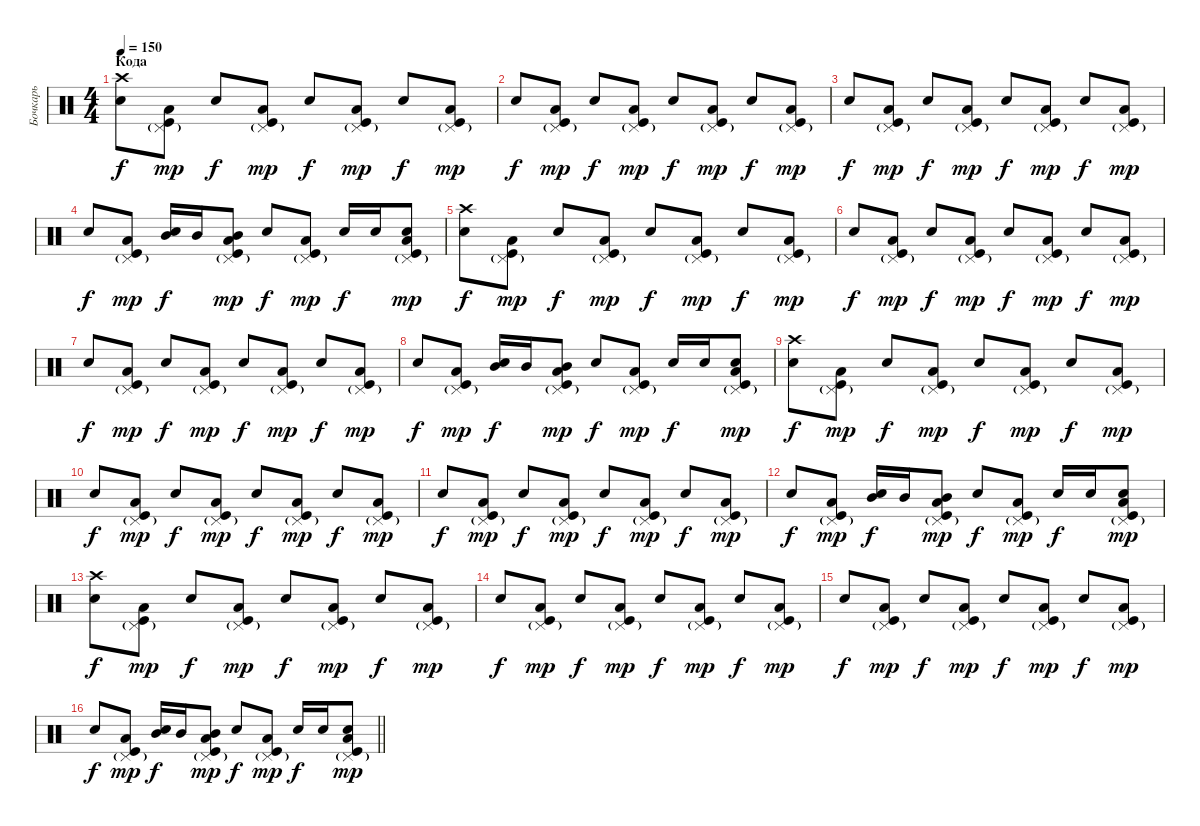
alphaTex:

\track ("Бочкарь" "Бочкарь") {instrument percussion}
\staff {score}
\articulation defaults
\ts (4 4)
\section ("" "Кода")
\tempo 150
\clef neutral
\ks c
("Crash high (hit)" "Electric Snare (hit)").8{dy f} ("Pedal Hi-Hat (hit)"{g} "Low Tom (hit)" "Kick (hit)").8{dy mp} "Electric Snare (hit)".8{dy f} ("Pedal Hi-Hat (hit)"{g} "Low Tom (hit)" "Kick (hit)").8{dy mp} "Electric Snare (hit)".8{dy f} ("Pedal Hi-Hat (hit)"{g} "Low Tom (hit)" "Kick (hit)").8{dy mp} "Electric Snare (hit)".8{dy f} ("Pedal Hi-Hat (hit)"{g} "Low Tom (hit)" "Kick (hit)").8{dy mp} |
"Electric Snare (hit)".8{dy f} ("Pedal Hi-Hat (hit)"{g} "Low Tom (hit)" "Kick (hit)").8{dy mp} "Electric Snare (hit)".8{dy f} ("Pedal Hi-Hat (hit)"{g} "Low Tom (hit)" "Kick (hit)").8{dy mp} "Electric Snare (hit)".8{dy f} ("Pedal Hi-Hat (hit)"{g} "Low Tom (hit)" "Kick (hit)").8{dy mp} "Electric Snare (hit)".8{dy f} ("Pedal Hi-Hat (hit)"{g} "Low Tom (hit)" "Kick (hit)").8{dy mp} |
"Electric Snare (hit)".8{dy f} ("Pedal Hi-Hat (hit)"{g} "Low Tom (hit)" "Kick (hit)").8{dy mp} "Electric Snare (hit)".8{dy f} ("Pedal Hi-Hat (hit)"{g} "Low Tom (hit)" "Kick (hit)").8{dy mp} "Electric Snare (hit)".8{dy f} ("Pedal Hi-Hat (hit)"{g} "Low Tom (hit)" "Kick (hit)").8{dy mp} "Electric Snare (hit)".8{dy f} ("Pedal Hi-Hat (hit)"{g} "Low Tom (hit)" "Kick (hit)").8{dy mp} |
"Electric Snare (hit)".8{dy f} ("Pedal Hi-Hat (hit)"{g} "Low Tom (hit)" "Kick (hit)").8{dy mp} ("Electric Snare (hit)" "Mid Tom (hit)").16{dy f} "Mid Tom (hit)".16 ("Pedal Hi-Hat (hit)"{g} "Mid Tom (hit)" "Low Tom (hit)" "Kick (hit)").8{dy mp} "Electric Snare (hit)".8{dy f} ("Pedal Hi-Hat (hit)"{g} "Low Tom (hit)" "Kick (hit)").8{dy mp} "Electric Snare (hit)".16{dy f} "Electric Snare (hit)".16 ("Pedal Hi-Hat (hit)"{g} "Electric Snare (hit)" "Low Tom (hit)" "Kick (hit)").8{dy mp} |
("Crash high (hit)" "Electric Snare (hit)").8{dy f} ("Pedal Hi-Hat (hit)"{g} "Low Tom (hit)" "Kick (hit)").8{dy mp} "Electric Snare (hit)".8{dy f} ("Pedal Hi-Hat (hit)"{g} "Low Tom (hit)" "Kick (hit)").8{dy mp} "Electric Snare (hit)".8{dy f} ("Pedal Hi-Hat (hit)"{g} "Low Tom (hit)" "Kick (hit)").8{dy mp} "Electric Snare (hit)".8{dy f} ("Pedal Hi-Hat (hit)"{g} "Low Tom (hit)" "Kick (hit)").8{dy mp} |
"Electric Snare (hit)".8{dy f} ("Pedal Hi-Hat (hit)"{g} "Low Tom (hit)" "Kick (hit)").8{dy mp} "Electric Snare (hit)".8{dy f} ("Pedal Hi-Hat (hit)"{g} "Low Tom (hit)" "Kick (hit)").8{dy mp} "Electric Snare (hit)".8{dy f} ("Pedal Hi-Hat (hit)"{g} "Low Tom (hit)" "Kick (hit)").8{dy mp} "Electric Snare (hit)".8{dy f} ("Pedal Hi-Hat (hit)"{g} "Low Tom (hit)" "Kick (hit)").8{dy mp} |
"Electric Snare (hit)".8{dy f} ("Pedal Hi-Hat (hit)"{g} "Low Tom (hit)" "Kick (hit)").8{dy mp} "Electric Snare (hit)".8{dy f} ("Pedal Hi-Hat (hit)"{g} "Low Tom (hit)" "Kick (hit)").8{dy mp} "Electric Snare (hit)".8{dy f} ("Pedal Hi-Hat (hit)"{g} "Low Tom (hit)" "Kick (hit)").8{dy mp} "Electric Snare (hit)".8{dy f} ("Pedal Hi-Hat (hit)"{g} "Low Tom (hit)" "Kick (hit)").8{dy mp} |
"Electric Snare (hit)".8{dy f} ("Pedal Hi-Hat (hit)"{g} "Low Tom (hit)" "Kick (hit)").8{dy mp} ("Electric Snare (hit)" "Mid Tom (hit)").16{dy f} "Mid Tom (hit)".16 ("Pedal Hi-Hat (hit)"{g} "Mid Tom (hit)" "Low Tom (hit)" "Kick (hit)").8{dy mp} "Electric Snare (hit)".8{dy f} ("Pedal Hi-Hat (hit)"{g} "Low Tom (hit)" "Kick (hit)").8{dy mp} "Electric Snare (hit)".16{dy f} "Electric Snare (hit)".16 ("Pedal Hi-Hat (hit)"{g} "Electric Snare (hit)" "Low Tom (hit)" "Kick (hit)").8{dy mp} |
("Crash high (hit)" "Electric Snare (hit)").8{dy f} ("Pedal Hi-Hat (hit)"{g} "Low Tom (hit)" "Kick (hit)").8{dy mp} "Electric Snare (hit)".8{dy f} ("Pedal Hi-Hat (hit)"{g} "Low Tom (hit)" "Kick (hit)").8{dy mp} "Electric Snare (hit)".8{dy f} ("Pedal Hi-Hat (hit)"{g} "Low Tom (hit)" "Kick (hit)").8{dy mp} "Electric Snare (hit)".8{dy f} ("Pedal Hi-Hat (hit)"{g} "Low Tom (hit)" "Kick (hit)").8{dy mp} |
"Electric Snare (hit)".8{dy f} ("Pedal Hi-Hat (hit)"{g} "Low Tom (hit)" "Kick (hit)").8{dy mp} "Electric Snare (hit)".8{dy f} ("Pedal Hi-Hat (hit)"{g} "Low Tom (hit)" "Kick (hit)").8{dy mp} "Electric Snare (hit)".8{dy f} ("Pedal Hi-Hat (hit)"{g} "Low Tom (hit)" "Kick (hit)").8{dy mp} "Electric Snare (hit)".8{dy f} ("Pedal Hi-Hat (hit)"{g} "Low Tom (hit)" "Kick (hit)").8{dy mp} |
"Electric Snare (hit)".8{dy f} ("Pedal Hi-Hat (hit)"{g} "Low Tom (hit)" "Kick (hit)").8{dy mp} "Electric Snare (hit)".8{dy f} ("Pedal Hi-Hat (hit)"{g} "Low Tom (hit)" "Kick (hit)").8{dy mp} "Electric Snare (hit)".8{dy f} ("Pedal Hi-Hat (hit)"{g} "Low Tom (hit)" "Kick (hit)").8{dy mp} "Electric Snare (hit)".8{dy f} ("Pedal Hi-Hat (hit)"{g} "Low Tom (hit)" "Kick (hit)").8{dy mp} |
"Electric Snare (hit)".8{dy f} ("Pedal Hi-Hat (hit)"{g} "Low Tom (hit)" "Kick (hit)").8{dy mp} ("Electric Snare (hit)" "Mid Tom (hit)").16{dy f} "Mid Tom (hit)".16 ("Pedal Hi-Hat (hit)"{g} "Mid Tom (hit)" "Low Tom (hit)" "Kick (hit)").8{dy mp} "Electric Snare (hit)".8{dy f} ("Pedal Hi-Hat (hit)"{g} "Low Tom (hit)" "Kick (hit)").8{dy mp} "Electric Snare (hit)".16{dy f} "Electric Snare (hit)".16 ("Pedal Hi-Hat (hit)"{g} "Electric Snare (hit)" "Low Tom (hit)" "Kick (hit)").8{dy mp} |
("Crash high (hit)" "Electric Snare (hit)").8{dy f} ("Pedal Hi-Hat (hit)"{g} "Low Tom (hit)" "Kick (hit)").8{dy mp} "Electric Snare (hit)".8{dy f} ("Pedal Hi-Hat (hit)"{g} "Low Tom (hit)" "Kick (hit)").8{dy mp} "Electric Snare (hit)".8{dy f} ("Pedal Hi-Hat (hit)"{g} "Low Tom (hit)" "Kick (hit)").8{dy mp} "Electric Snare (hit)".8{dy f} ("Pedal Hi-Hat (hit)"{g} "Low Tom (hit)" "Kick (hit)").8{dy mp} |
"Electric Snare (hit)".8{dy f} ("Pedal Hi-Hat (hit)"{g} "Low Tom (hit)" "Kick (hit)").8{dy mp} "Electric Snare (hit)".8{dy f} ("Pedal Hi-Hat (hit)"{g} "Low Tom (hit)" "Kick (hit)").8{dy mp} "Electric Snare (hit)".8{dy f} ("Pedal Hi-Hat (hit)"{g} "Low Tom (hit)" "Kick (hit)").8{dy mp} "Electric Snare (hit)".8{dy f} ("Pedal Hi-Hat (hit)"{g} "Low Tom (hit)" "Kick (hit)").8{dy mp} |
"Electric Snare (hit)".8{dy f} ("Pedal Hi-Hat (hit)"{g} "Low Tom (hit)" "Kick (hit)").8{dy mp} "Electric Snare (hit)".8{dy f} ("Pedal Hi-Hat (hit)"{g} "Low Tom (hit)" "Kick (hit)").8{dy mp} "Electric Snare (hit)".8{dy f} ("Pedal Hi-Hat (hit)"{g} "Low Tom (hit)" "Kick (hit)").8{dy mp} "Electric Snare (hit)".8{dy f} ("Pedal Hi-Hat (hit)"{g} "Low Tom (hit)" "Kick (hit)").8{dy mp} |
\barLineRight lightlight "Electric Snare (hit)".8{dy f}
("Pedal Hi-Hat (hit)"{g} "Low Tom (hit)" "Kick (hit)").8{dy mp} ("Electric Snare (hit)" "Mid Tom (hit)").16{dy f} "Mid Tom (hit)".16 ("Pedal Hi-Hat (hit)"{g} "Mid Tom (hit)" "Low Tom (hit)" "Kick (hit)").8{dy mp} "Electric Snare (hit)".8{dy f} ("Pedal Hi-Hat (hit)"{g} "Low Tom (hit)" "Kick (hit)").8{dy mp} "Electric Snare (hit)".16{dy f} "Electric Snare (hit)".16 ("Pedal Hi-Hat (hit)"{g} "Electric Snare (hit)" "Low Tom (hit)" "Kick (hit)").8{dy mp}
